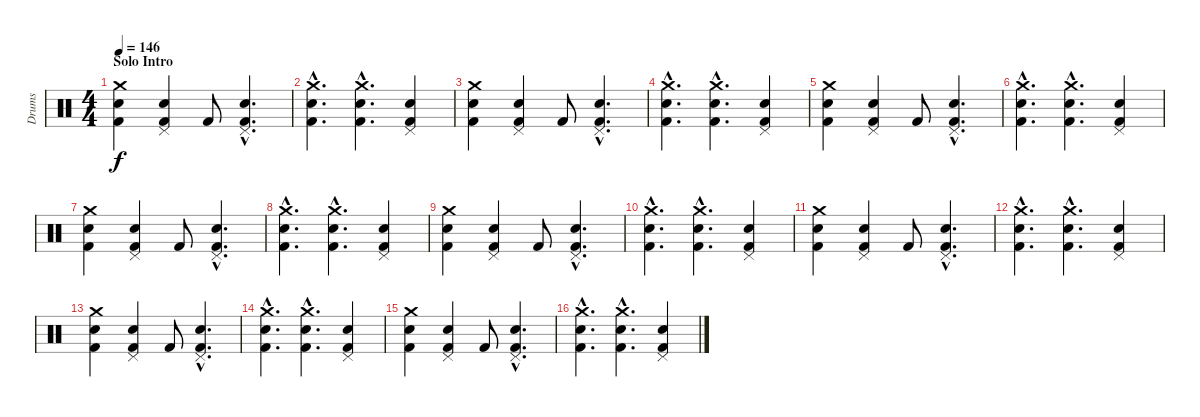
\track ("Drums" "Drums") {instrument percussion}
\staff {score}
\articulation defaults
\ts (4 4)
\section ("" "Solo Intro")
\tempo 146
\clef neutral
\ks c
("Crash medium (hit)" "Snare (hit) 2" "Kick (hit) 2").4{dy f} ("Pedal Hi-Hat (hit)" "Snare (hit) 2" "Kick (hit) 2").4 "Kick (hit) 2".8 ("Pedal Hi-Hat (hit)"{hac} "Snare (hit) 2"{hac} "Kick (hit) 2"{hac}).4{d} |
("Crash medium (hit)"{hac} "Snare (hit) 2"{hac} "Kick (hit) 2"{hac}).4{d} ("Crash medium (hit)"{hac} "Snare (hit) 2"{hac} "Kick (hit) 2"{hac}).4{d} ("Pedal Hi-Hat (hit)" "Snare (hit) 2" "Kick (hit) 2").4 |
("Crash medium (hit)" "Snare (hit) 2" "Kick (hit) 2").4 ("Pedal Hi-Hat (hit)" "Snare (hit) 2" "Kick (hit) 2").4 "Kick (hit) 2".8 ("Pedal Hi-Hat (hit)"{hac} "Snare (hit) 2"{hac} "Kick (hit) 2"{hac}).4{d} |
("Crash medium (hit)"{hac} "Snare (hit) 2"{hac} "Kick (hit) 2"{hac}).4{d} ("Crash medium (hit)"{hac} "Snare (hit) 2"{hac} "Kick (hit) 2"{hac}).4{d} ("Pedal Hi-Hat (hit)" "Snare (hit) 2" "Kick (hit) 2").4 |
("Crash medium (hit)" "Snare (hit) 2" "Kick (hit) 2").4 ("Pedal Hi-Hat (hit)" "Snare (hit) 2" "Kick (hit) 2").4 "Kick (hit) 2".8 ("Pedal Hi-Hat (hit)"{hac} "Snare (hit) 2"{hac} "Kick (hit) 2"{hac}).4{d} |
("Crash medium (hit)"{hac} "Snare (hit) 2"{hac} "Kick (hit) 2"{hac}).4{d} ("Crash medium (hit)"{hac} "Snare (hit) 2"{hac} "Kick (hit) 2"{hac}).4{d} ("Pedal Hi-Hat (hit)" "Snare (hit) 2" "Kick (hit) 2").4 |
("Crash medium (hit)" "Snare (hit) 2" "Kick (hit) 2").4 ("Pedal Hi-Hat (hit)" "Snare (hit) 2" "Kick (hit) 2").4 "Kick (hit) 2".8 ("Pedal Hi-Hat (hit)"{hac} "Snare (hit) 2"{hac} "Kick (hit) 2"{hac}).4{d} |
("Crash medium (hit)"{hac} "Snare (hit) 2"{hac} "Kick (hit) 2"{hac}).4{d} ("Crash medium (hit)"{hac} "Snare (hit) 2"{hac} "Kick (hit) 2"{hac}).4{d} ("Pedal Hi-Hat (hit)" "Snare (hit) 2" "Kick (hit) 2").4 |
("Crash medium (hit)" "Snare (hit) 2" "Kick (hit) 2").4 ("Pedal Hi-Hat (hit)" "Snare (hit) 2" "Kick (hit) 2").4 "Kick (hit) 2".8 ("Pedal Hi-Hat (hit)"{hac} "Snare (hit) 2"{hac} "Kick (hit) 2"{hac}).4{d} |
("Crash medium (hit)"{hac} "Snare (hit) 2"{hac} "Kick (hit) 2"{hac}).4{d} ("Crash medium (hit)"{hac} "Snare (hit) 2"{hac} "Kick (hit) 2"{hac}).4{d} ("Pedal Hi-Hat (hit)" "Snare (hit) 2" "Kick (hit) 2").4 |
("Crash medium (hit)" "Snare (hit) 2" "Kick (hit) 2").4 ("Pedal Hi-Hat (hit)" "Snare (hit) 2" "Kick (hit) 2").4 "Kick (hit) 2".8 ("Pedal Hi-Hat (hit)"{hac} "Snare (hit) 2"{hac} "Kick (hit) 2"{hac}).4{d} |
("Crash medium (hit)"{hac} "Snare (hit) 2"{hac} "Kick (hit) 2"{hac}).4{d} ("Crash medium (hit)"{hac} "Snare (hit) 2"{hac} "Kick (hit) 2"{hac}).4{d} ("Pedal Hi-Hat (hit)" "Snare (hit) 2" "Kick (hit) 2").4 |
("Crash medium (hit)" "Snare (hit) 2" "Kick (hit) 2").4 ("Pedal Hi-Hat (hit)" "Snare (hit) 2" "Kick (hit) 2").4 "Kick (hit) 2".8 ("Pedal Hi-Hat (hit)"{hac} "Snare (hit) 2"{hac} "Kick (hit) 2"{hac}).4{d} |
("Crash medium (hit)"{hac} "Snare (hit) 2"{hac} "Kick (hit) 2"{hac}).4{d} ("Crash medium (hit)"{hac} "Snare (hit) 2"{hac} "Kick (hit) 2"{hac}).4{d} ("Pedal Hi-Hat (hit)" "Snare (hit) 2" "Kick (hit) 2").4 |
("Crash medium (hit)" "Snare (hit) 2" "Kick (hit) 2").4 ("Pedal Hi-Hat (hit)" "Snare (hit) 2" "Kick (hit) 2").4 "Kick (hit) 2".8 ("Pedal Hi-Hat (hit)"{hac} "Snare (hit) 2"{hac} "Kick (hit) 2"{hac}).4{d} |
("Crash medium (hit)"{hac} "Snare (hit) 2"{hac} "Kick (hit) 2"{hac}).4{d} ("Crash medium (hit)"{hac} "Snare (hit) 2"{hac} "Kick (hit) 2"{hac}).4{d} ("Pedal Hi-Hat (hit)" "Snare (hit) 2" "Kick (hit) 2").4
